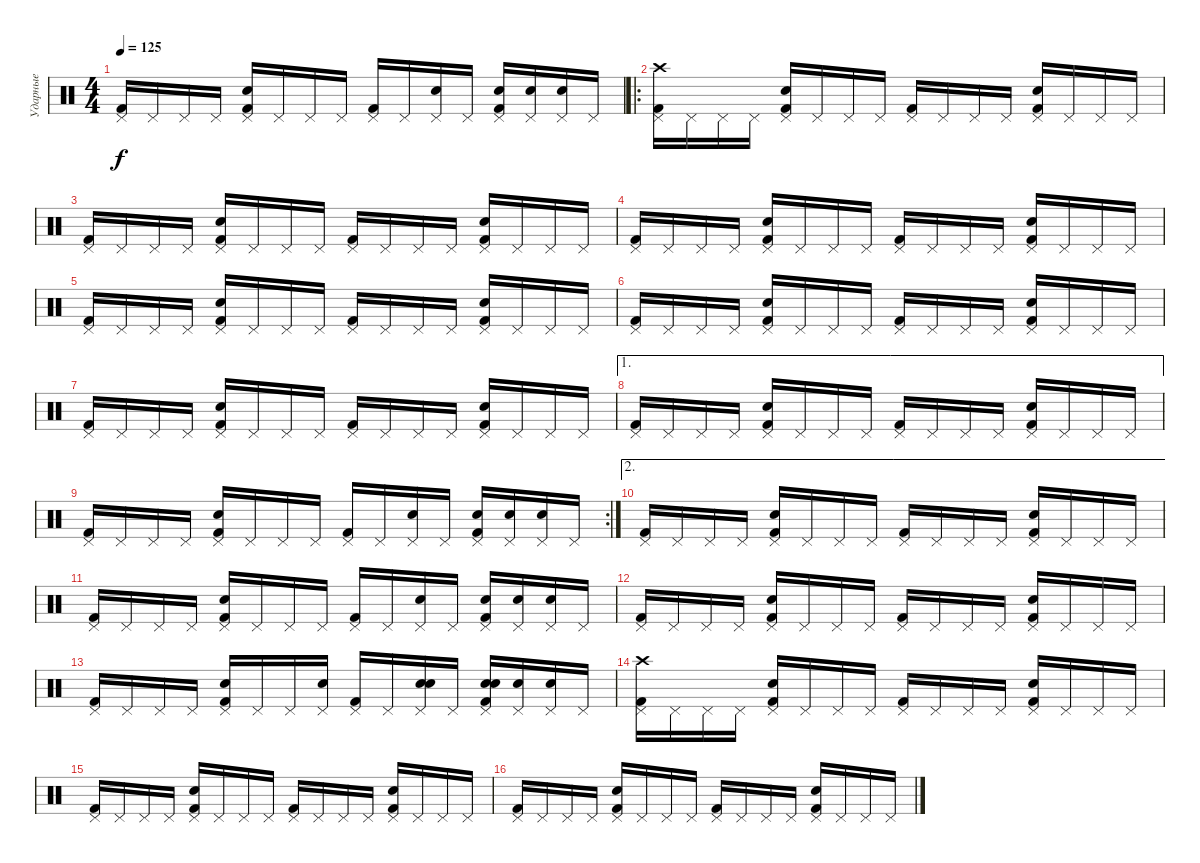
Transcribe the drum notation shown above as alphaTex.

\track ("Ударные" "Ударные") {instrument percussion}
\staff {score}
\articulation defaults
\ts (4 4)
\tempo 125
\clef neutral
\ks c
("Kick (hit) 2" "Pedal Hi-Hat (hit)").16{dy f} "Pedal Hi-Hat (hit)".16 "Pedal Hi-Hat (hit)".16 "Pedal Hi-Hat (hit)".16 ("Kick (hit) 2" "Pedal Hi-Hat (hit)" "Snare (hit) 2").16 "Pedal Hi-Hat (hit)".16 "Pedal Hi-Hat (hit)".16 "Pedal Hi-Hat (hit)".16 ("Kick (hit) 2" "Pedal Hi-Hat (hit)").16 "Pedal Hi-Hat (hit)".16 ("Pedal Hi-Hat (hit)" "Snare (hit) 2").16 "Pedal Hi-Hat (hit)".16 ("Kick (hit) 2" "Pedal Hi-Hat (hit)" "Snare (hit) 2").16 ("Pedal Hi-Hat (hit)" "Snare (hit) 2").16 ("Pedal Hi-Hat (hit)" "Snare (hit) 2").16 "Pedal Hi-Hat (hit)".16 |
\ro
("Kick (hit) 2" "Pedal Hi-Hat (hit)" "Crash high (hit)").16 "Pedal Hi-Hat (hit)".16 "Pedal Hi-Hat (hit)".16 "Pedal Hi-Hat (hit)".16 ("Kick (hit) 2" "Pedal Hi-Hat (hit)" "Snare (hit) 2").16 "Pedal Hi-Hat (hit)".16 "Pedal Hi-Hat (hit)".16 "Pedal Hi-Hat (hit)".16 ("Kick (hit) 2" "Pedal Hi-Hat (hit)").16 "Pedal Hi-Hat (hit)".16 "Pedal Hi-Hat (hit)".16 "Pedal Hi-Hat (hit)".16 ("Kick (hit) 2" "Pedal Hi-Hat (hit)" "Snare (hit) 2").16 "Pedal Hi-Hat (hit)".16 "Pedal Hi-Hat (hit)".16 "Pedal Hi-Hat (hit)".16 |
("Kick (hit) 2" "Pedal Hi-Hat (hit)").16 "Pedal Hi-Hat (hit)".16 "Pedal Hi-Hat (hit)".16 "Pedal Hi-Hat (hit)".16 ("Kick (hit) 2" "Pedal Hi-Hat (hit)" "Snare (hit) 2").16 "Pedal Hi-Hat (hit)".16 "Pedal Hi-Hat (hit)".16 "Pedal Hi-Hat (hit)".16 ("Kick (hit) 2" "Pedal Hi-Hat (hit)").16 "Pedal Hi-Hat (hit)".16 "Pedal Hi-Hat (hit)".16 "Pedal Hi-Hat (hit)".16 ("Kick (hit) 2" "Pedal Hi-Hat (hit)" "Snare (hit) 2").16 "Pedal Hi-Hat (hit)".16 "Pedal Hi-Hat (hit)".16 "Pedal Hi-Hat (hit)".16 |
("Kick (hit) 2" "Pedal Hi-Hat (hit)").16 "Pedal Hi-Hat (hit)".16 "Pedal Hi-Hat (hit)".16 "Pedal Hi-Hat (hit)".16 ("Kick (hit) 2" "Pedal Hi-Hat (hit)" "Snare (hit) 2").16 "Pedal Hi-Hat (hit)".16 "Pedal Hi-Hat (hit)".16 "Pedal Hi-Hat (hit)".16 ("Kick (hit) 2" "Pedal Hi-Hat (hit)").16 "Pedal Hi-Hat (hit)".16 "Pedal Hi-Hat (hit)".16 "Pedal Hi-Hat (hit)".16 ("Kick (hit) 2" "Pedal Hi-Hat (hit)" "Snare (hit) 2").16 "Pedal Hi-Hat (hit)".16 "Pedal Hi-Hat (hit)".16 "Pedal Hi-Hat (hit)".16 |
("Kick (hit) 2" "Pedal Hi-Hat (hit)").16 "Pedal Hi-Hat (hit)".16 "Pedal Hi-Hat (hit)".16 "Pedal Hi-Hat (hit)".16 ("Kick (hit) 2" "Pedal Hi-Hat (hit)" "Snare (hit) 2").16 "Pedal Hi-Hat (hit)".16 "Pedal Hi-Hat (hit)".16 "Pedal Hi-Hat (hit)".16 ("Kick (hit) 2" "Pedal Hi-Hat (hit)").16 "Pedal Hi-Hat (hit)".16 "Pedal Hi-Hat (hit)".16 "Pedal Hi-Hat (hit)".16 ("Kick (hit) 2" "Pedal Hi-Hat (hit)" "Snare (hit) 2").16 "Pedal Hi-Hat (hit)".16 "Pedal Hi-Hat (hit)".16 "Pedal Hi-Hat (hit)".16 |
("Kick (hit) 2" "Pedal Hi-Hat (hit)").16 "Pedal Hi-Hat (hit)".16 "Pedal Hi-Hat (hit)".16 "Pedal Hi-Hat (hit)".16 ("Kick (hit) 2" "Pedal Hi-Hat (hit)" "Snare (hit) 2").16 "Pedal Hi-Hat (hit)".16 "Pedal Hi-Hat (hit)".16 "Pedal Hi-Hat (hit)".16 ("Kick (hit) 2" "Pedal Hi-Hat (hit)").16 "Pedal Hi-Hat (hit)".16 "Pedal Hi-Hat (hit)".16 "Pedal Hi-Hat (hit)".16 ("Kick (hit) 2" "Pedal Hi-Hat (hit)" "Snare (hit) 2").16 "Pedal Hi-Hat (hit)".16 "Pedal Hi-Hat (hit)".16 "Pedal Hi-Hat (hit)".16 |
("Kick (hit) 2" "Pedal Hi-Hat (hit)").16 "Pedal Hi-Hat (hit)".16 "Pedal Hi-Hat (hit)".16 "Pedal Hi-Hat (hit)".16 ("Kick (hit) 2" "Pedal Hi-Hat (hit)" "Snare (hit) 2").16 "Pedal Hi-Hat (hit)".16 "Pedal Hi-Hat (hit)".16 "Pedal Hi-Hat (hit)".16 ("Kick (hit) 2" "Pedal Hi-Hat (hit)").16 "Pedal Hi-Hat (hit)".16 "Pedal Hi-Hat (hit)".16 "Pedal Hi-Hat (hit)".16 ("Kick (hit) 2" "Pedal Hi-Hat (hit)" "Snare (hit) 2").16 "Pedal Hi-Hat (hit)".16 "Pedal Hi-Hat (hit)".16 "Pedal Hi-Hat (hit)".16 |
\ae 1
("Kick (hit) 2" "Pedal Hi-Hat (hit)").16 "Pedal Hi-Hat (hit)".16 "Pedal Hi-Hat (hit)".16 "Pedal Hi-Hat (hit)".16 ("Kick (hit) 2" "Pedal Hi-Hat (hit)" "Snare (hit) 2").16 "Pedal Hi-Hat (hit)".16 "Pedal Hi-Hat (hit)".16 "Pedal Hi-Hat (hit)".16 ("Kick (hit) 2" "Pedal Hi-Hat (hit)").16 "Pedal Hi-Hat (hit)".16 "Pedal Hi-Hat (hit)".16 "Pedal Hi-Hat (hit)".16 ("Kick (hit) 2" "Pedal Hi-Hat (hit)" "Snare (hit) 2").16 "Pedal Hi-Hat (hit)".16 "Pedal Hi-Hat (hit)".16 "Pedal Hi-Hat (hit)".16 |
\rc 2
("Kick (hit) 2" "Pedal Hi-Hat (hit)").16 "Pedal Hi-Hat (hit)".16 "Pedal Hi-Hat (hit)".16 "Pedal Hi-Hat (hit)".16 ("Kick (hit) 2" "Pedal Hi-Hat (hit)" "Snare (hit) 2").16 "Pedal Hi-Hat (hit)".16 "Pedal Hi-Hat (hit)".16 "Pedal Hi-Hat (hit)".16 ("Kick (hit) 2" "Pedal Hi-Hat (hit)").16 "Pedal Hi-Hat (hit)".16 ("Pedal Hi-Hat (hit)" "Snare (hit) 2").16 "Pedal Hi-Hat (hit)".16 ("Kick (hit) 2" "Pedal Hi-Hat (hit)" "Snare (hit) 2").16 ("Pedal Hi-Hat (hit)" "Snare (hit) 2").16 ("Pedal Hi-Hat (hit)" "Snare (hit) 2").16 "Pedal Hi-Hat (hit)".16 |
\ae 2
("Kick (hit) 2" "Pedal Hi-Hat (hit)").16 "Pedal Hi-Hat (hit)".16 "Pedal Hi-Hat (hit)".16 "Pedal Hi-Hat (hit)".16 ("Kick (hit) 2" "Pedal Hi-Hat (hit)" "Snare (hit) 2").16 "Pedal Hi-Hat (hit)".16 "Pedal Hi-Hat (hit)".16 "Pedal Hi-Hat (hit)".16 ("Kick (hit) 2" "Pedal Hi-Hat (hit)").16 "Pedal Hi-Hat (hit)".16 "Pedal Hi-Hat (hit)".16 "Pedal Hi-Hat (hit)".16 ("Kick (hit) 2" "Pedal Hi-Hat (hit)" "Snare (hit) 2").16 "Pedal Hi-Hat (hit)".16 "Pedal Hi-Hat (hit)".16 "Pedal Hi-Hat (hit)".16 |
("Kick (hit) 2" "Pedal Hi-Hat (hit)").16 "Pedal Hi-Hat (hit)".16 "Pedal Hi-Hat (hit)".16 "Pedal Hi-Hat (hit)".16 ("Kick (hit) 2" "Pedal Hi-Hat (hit)" "Snare (hit) 2").16 "Pedal Hi-Hat (hit)".16 "Pedal Hi-Hat (hit)".16 "Pedal Hi-Hat (hit)".16 ("Kick (hit) 2" "Pedal Hi-Hat (hit)").16 "Pedal Hi-Hat (hit)".16 ("Pedal Hi-Hat (hit)" "Snare (hit) 2").16 "Pedal Hi-Hat (hit)".16 ("Kick (hit) 2" "Pedal Hi-Hat (hit)" "Snare (hit) 2").16 ("Pedal Hi-Hat (hit)" "Snare (hit) 2").16 ("Pedal Hi-Hat (hit)" "Snare (hit) 2").16 "Pedal Hi-Hat (hit)".16 |
("Kick (hit) 2" "Pedal Hi-Hat (hit)").16 "Pedal Hi-Hat (hit)".16 "Pedal Hi-Hat (hit)".16 "Pedal Hi-Hat (hit)".16 ("Kick (hit) 2" "Pedal Hi-Hat (hit)" "Snare (hit) 2").16 "Pedal Hi-Hat (hit)".16 "Pedal Hi-Hat (hit)".16 "Pedal Hi-Hat (hit)".16 ("Kick (hit) 2" "Pedal Hi-Hat (hit)").16 "Pedal Hi-Hat (hit)".16 "Pedal Hi-Hat (hit)".16 "Pedal Hi-Hat (hit)".16 ("Kick (hit) 2" "Pedal Hi-Hat (hit)" "Snare (hit) 2").16 "Pedal Hi-Hat (hit)".16 "Pedal Hi-Hat (hit)".16 "Pedal Hi-Hat (hit)".16 |
("Kick (hit) 2" "Pedal Hi-Hat (hit)").16 "Pedal Hi-Hat (hit)".16 "Pedal Hi-Hat (hit)".16 "Pedal Hi-Hat (hit)".16 ("Kick (hit) 2" "Pedal Hi-Hat (hit)" "Snare (hit) 2").16 "Pedal Hi-Hat (hit)".16 "Pedal Hi-Hat (hit)".16 ("Pedal Hi-Hat (hit)" "Hand Clap (hit)").16 ("Kick (hit) 2" "Pedal Hi-Hat (hit)").16 "Pedal Hi-Hat (hit)".16 ("Pedal Hi-Hat (hit)" "Snare (hit) 2" "Hand Clap (hit)").16 "Pedal Hi-Hat (hit)".16 ("Kick (hit) 2" "Pedal Hi-Hat (hit)" "Snare (hit) 2" "Hand Clap (hit)").16 ("Pedal Hi-Hat (hit)" "Snare (hit) 2").16 ("Pedal Hi-Hat (hit)" "Snare (hit) 2").16 "Pedal Hi-Hat (hit)".16 |
("Kick (hit) 2" "Pedal Hi-Hat (hit)" "Crash high (hit)").16 "Pedal Hi-Hat (hit)".16 "Pedal Hi-Hat (hit)".16 "Pedal Hi-Hat (hit)".16 ("Kick (hit) 2" "Pedal Hi-Hat (hit)" "Snare (hit) 2").16 "Pedal Hi-Hat (hit)".16 "Pedal Hi-Hat (hit)".16 "Pedal Hi-Hat (hit)".16 ("Kick (hit) 2" "Pedal Hi-Hat (hit)").16 "Pedal Hi-Hat (hit)".16 "Pedal Hi-Hat (hit)".16 "Pedal Hi-Hat (hit)".16 ("Kick (hit) 2" "Pedal Hi-Hat (hit)" "Snare (hit) 2").16 "Pedal Hi-Hat (hit)".16 "Pedal Hi-Hat (hit)".16 "Pedal Hi-Hat (hit)".16 |
("Kick (hit) 2" "Pedal Hi-Hat (hit)").16 "Pedal Hi-Hat (hit)".16 "Pedal Hi-Hat (hit)".16 "Pedal Hi-Hat (hit)".16 ("Kick (hit) 2" "Pedal Hi-Hat (hit)" "Snare (hit) 2").16 "Pedal Hi-Hat (hit)".16 "Pedal Hi-Hat (hit)".16 "Pedal Hi-Hat (hit)".16 ("Kick (hit) 2" "Pedal Hi-Hat (hit)").16 "Pedal Hi-Hat (hit)".16 "Pedal Hi-Hat (hit)".16 "Pedal Hi-Hat (hit)".16 ("Kick (hit) 2" "Pedal Hi-Hat (hit)" "Snare (hit) 2").16 "Pedal Hi-Hat (hit)".16 "Pedal Hi-Hat (hit)".16 "Pedal Hi-Hat (hit)".16 |
("Kick (hit) 2" "Pedal Hi-Hat (hit)").16 "Pedal Hi-Hat (hit)".16 "Pedal Hi-Hat (hit)".16 "Pedal Hi-Hat (hit)".16 ("Kick (hit) 2" "Pedal Hi-Hat (hit)" "Snare (hit) 2").16 "Pedal Hi-Hat (hit)".16 "Pedal Hi-Hat (hit)".16 "Pedal Hi-Hat (hit)".16 ("Kick (hit) 2" "Pedal Hi-Hat (hit)").16 "Pedal Hi-Hat (hit)".16 "Pedal Hi-Hat (hit)".16 "Pedal Hi-Hat (hit)".16 ("Kick (hit) 2" "Pedal Hi-Hat (hit)" "Snare (hit) 2").16 "Pedal Hi-Hat (hit)".16 "Pedal Hi-Hat (hit)".16 "Pedal Hi-Hat (hit)".16
